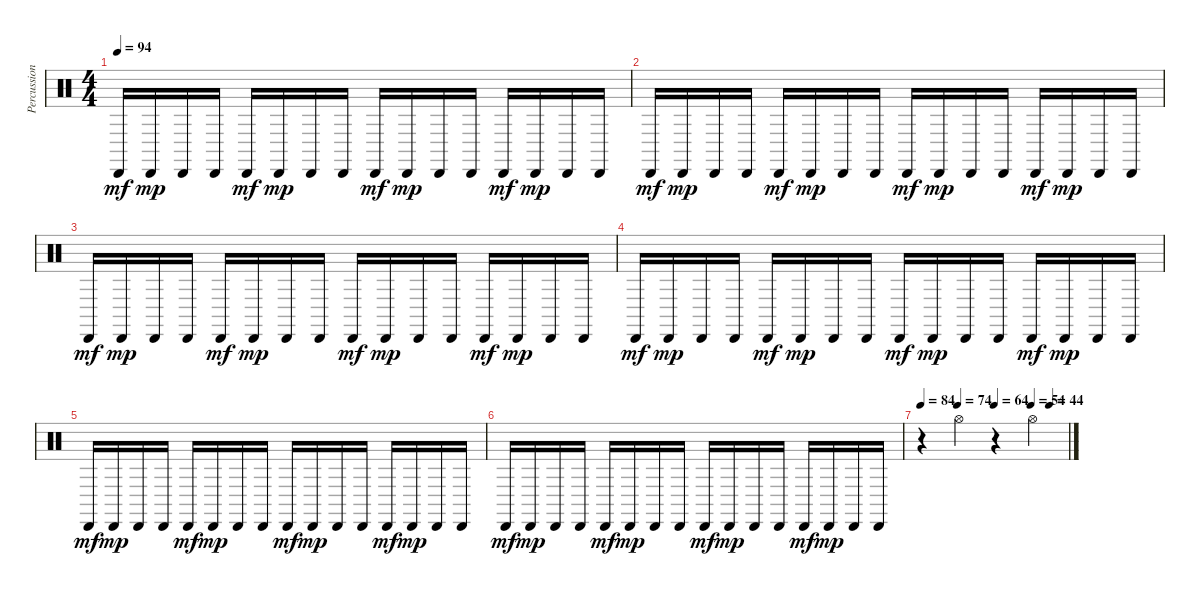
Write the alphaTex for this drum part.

\track ("Percussions" "Percussion") {instrument percussion}
\staff {score}
\articulation defaults
\ts (4 4)
\tempo 94
\clef neutral
\ks c "Cabasa (hit)".16{dy mf} "Cabasa (hit)".16{dy mp} "Cabasa (hit)".16 "Cabasa (hit)".16 "Cabasa (hit)".16{dy mf} "Cabasa (hit)".16{dy mp} "Cabasa (hit)".16 "Cabasa (hit)".16 "Cabasa (hit)".16{dy mf} "Cabasa (hit)".16{dy mp} "Cabasa (hit)".16 "Cabasa (hit)".16 "Cabasa (hit)".16{dy mf} "Cabasa (hit)".16{dy mp} "Cabasa (hit)".16 "Cabasa (hit)".16
|
"Cabasa (hit)".16{dy mf} "Cabasa (hit)".16{dy mp} "Cabasa (hit)".16 "Cabasa (hit)".16 "Cabasa (hit)".16{dy mf} "Cabasa (hit)".16{dy mp} "Cabasa (hit)".16 "Cabasa (hit)".16 "Cabasa (hit)".16{dy mf} "Cabasa (hit)".16{dy mp} "Cabasa (hit)".16 "Cabasa (hit)".16 "Cabasa (hit)".16{dy mf} "Cabasa (hit)".16{dy mp} "Cabasa (hit)".16 "Cabasa (hit)".16 |
"Cabasa (hit)".16{dy mf} "Cabasa (hit)".16{dy mp} "Cabasa (hit)".16 "Cabasa (hit)".16 "Cabasa (hit)".16{dy mf} "Cabasa (hit)".16{dy mp} "Cabasa (hit)".16 "Cabasa (hit)".16 "Cabasa (hit)".16{dy mf} "Cabasa (hit)".16{dy mp} "Cabasa (hit)".16 "Cabasa (hit)".16 "Cabasa (hit)".16{dy mf} "Cabasa (hit)".16{dy mp} "Cabasa (hit)".16 "Cabasa (hit)".16 |
"Cabasa (hit)".16{dy mf} "Cabasa (hit)".16{dy mp} "Cabasa (hit)".16 "Cabasa (hit)".16 "Cabasa (hit)".16{dy mf} "Cabasa (hit)".16{dy mp} "Cabasa (hit)".16 "Cabasa (hit)".16 "Cabasa (hit)".16{dy mf} "Cabasa (hit)".16{dy mp} "Cabasa (hit)".16 "Cabasa (hit)".16 "Cabasa (hit)".16{dy mf} "Cabasa (hit)".16{dy mp} "Cabasa (hit)".16 "Cabasa (hit)".16 |
"Cabasa (hit)".16{dy mf} "Cabasa (hit)".16{dy mp} "Cabasa (hit)".16 "Cabasa (hit)".16 "Cabasa (hit)".16{dy mf} "Cabasa (hit)".16{dy mp} "Cabasa (hit)".16 "Cabasa (hit)".16 "Cabasa (hit)".16{dy mf} "Cabasa (hit)".16{dy mp} "Cabasa (hit)".16 "Cabasa (hit)".16 "Cabasa (hit)".16{dy mf} "Cabasa (hit)".16{dy mp} "Cabasa (hit)".16 "Cabasa (hit)".16 |
"Cabasa (hit)".16{dy mf} "Cabasa (hit)".16{dy mp} "Cabasa (hit)".16 "Cabasa (hit)".16 "Cabasa (hit)".16{dy mf} "Cabasa (hit)".16{dy mp} "Cabasa (hit)".16 "Cabasa (hit)".16 "Cabasa (hit)".16{dy mf} "Cabasa (hit)".16{dy mp} "Cabasa (hit)".16 "Cabasa (hit)".16 "Cabasa (hit)".16{dy mf} "Cabasa (hit)".16{dy mp} "Cabasa (hit)".16 "Cabasa (hit)".16 |
\tempo 84
\tempo (74 0.25)
\tempo (64 0.5)
\tempo (54 0.75)
\tempo (44 0.875)
r.4 "Hi-Hat (open)".4 r.4 "Hi-Hat (open)".4
